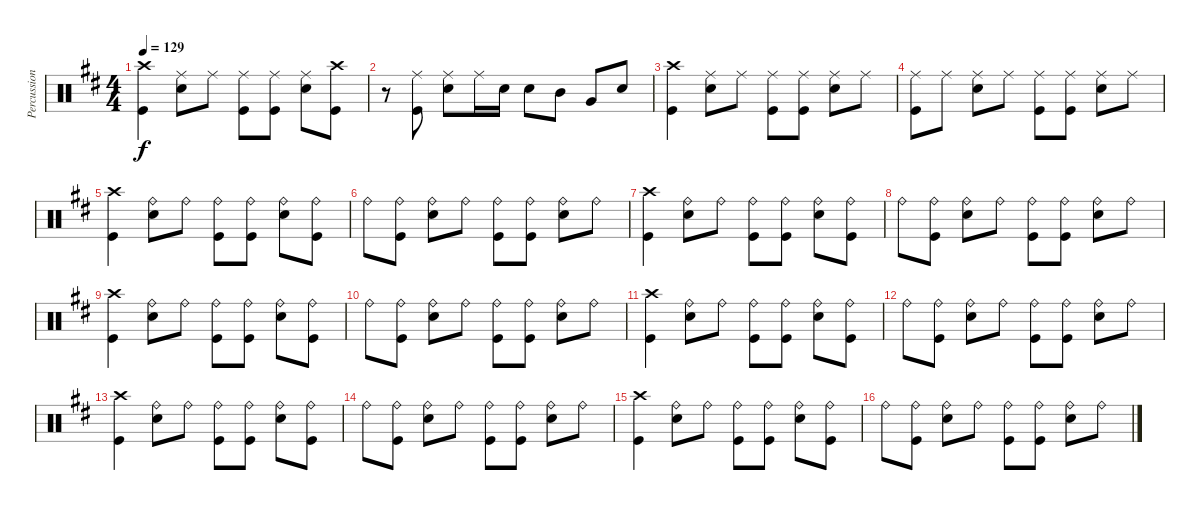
\track ("Percussion" "Percussion") {instrument percussion}
\staff {score}
\articulation defaults
\ts (4 4)
\tempo 129
\clef neutral
\ks bminor
("Crash high (hit)" "Kick (hit)").4{dy f} ("Ride (middle)" "Snare (hit) 2").8 "Ride (middle)".8 ("Ride (middle)" "Kick (hit)").8 ("Ride (middle)" "Kick (hit)").8 ("Ride (middle)" "Snare (hit) 2").8 ("Crash high (hit)" "Kick (hit)").8 |
r.8 ("Ride (middle)" "Kick (hit)").8 ("Ride (middle)" "Snare (hit) 2").8 "Ride (middle)".16 "Snare (hit) 2".16 "Snare (hit) 2".8 "Mid Tom (hit)".8 "Very Low Tom (hit)".8 "Snare (hit) 2".8 |
("Crash high (hit)" "Kick (hit)").4 ("Ride (middle)" "Snare (hit) 2").8 "Ride (middle)".8 ("Ride (middle)" "Kick (hit)").8 ("Ride (middle)" "Kick (hit)").8 ("Ride (middle)" "Snare (hit) 2").8 "Ride (middle)".8 |
("Ride (middle)" "Kick (hit)").8 "Ride (middle)".8 ("Ride (middle)" "Snare (hit) 2").8 "Ride (middle)".8 ("Ride (middle)" "Kick (hit)").8 ("Ride (middle)" "Kick (hit)").8 ("Ride (middle)" "Snare (hit) 2").8 "Ride (middle)".8 |
("Crash high (hit)" "Kick (hit)").4 ("Ride (bell)" "Snare (hit) 2").8 "Ride (bell)".8 ("Ride (bell)" "Kick (hit)").8 ("Ride (bell)" "Kick (hit)").8 ("Ride (bell)" "Snare (hit) 2").8 ("Ride (bell)" "Kick (hit)").8 |
"Ride (bell)".8 ("Ride (bell)" "Kick (hit)").8 ("Ride (bell)" "Snare (hit) 2").8 "Ride (bell)".8 ("Ride (bell)" "Kick (hit)").8 ("Ride (bell)" "Kick (hit)").8 ("Ride (bell)" "Snare (hit) 2").8 "Ride (bell)".8 |
("Crash high (hit)" "Kick (hit)").4 ("Ride (bell)" "Snare (hit) 2").8 "Ride (bell)".8 ("Ride (bell)" "Kick (hit)").8 ("Ride (bell)" "Kick (hit)").8 ("Ride (bell)" "Snare (hit) 2").8 ("Ride (bell)" "Kick (hit)").8 |
"Ride (bell)".8 ("Ride (bell)" "Kick (hit)").8 ("Ride (bell)" "Snare (hit) 2").8 "Ride (bell)".8 ("Ride (bell)" "Kick (hit)").8 ("Ride (bell)" "Kick (hit)").8 ("Ride (bell)" "Snare (hit) 2").8 "Ride (bell)".8 |
("Crash high (hit)" "Kick (hit)").4 ("Ride (bell)" "Snare (hit) 2").8 "Ride (bell)".8 ("Ride (bell)" "Kick (hit)").8 ("Ride (bell)" "Kick (hit)").8 ("Ride (bell)" "Snare (hit) 2").8 ("Ride (bell)" "Kick (hit)").8 |
"Ride (bell)".8 ("Ride (bell)" "Kick (hit)").8 ("Ride (bell)" "Snare (hit) 2").8 "Ride (bell)".8 ("Ride (bell)" "Kick (hit)").8 ("Ride (bell)" "Kick (hit)").8 ("Ride (bell)" "Snare (hit) 2").8 "Ride (bell)".8 |
("Crash high (hit)" "Kick (hit)").4 ("Ride (bell)" "Snare (hit) 2").8 "Ride (bell)".8 ("Ride (bell)" "Kick (hit)").8 ("Ride (bell)" "Kick (hit)").8 ("Ride (bell)" "Snare (hit) 2").8 ("Ride (bell)" "Kick (hit)").8 |
"Ride (bell)".8 ("Ride (bell)" "Kick (hit)").8 ("Ride (bell)" "Snare (hit) 2").8 "Ride (bell)".8 ("Ride (bell)" "Kick (hit)").8 ("Ride (bell)" "Kick (hit)").8 ("Ride (bell)" "Snare (hit) 2").8 "Ride (bell)".8 |
("Crash high (hit)" "Kick (hit)").4 ("Ride (bell)" "Snare (hit) 2").8 "Ride (bell)".8 ("Ride (bell)" "Kick (hit)").8 ("Ride (bell)" "Kick (hit)").8 ("Ride (bell)" "Snare (hit) 2").8 ("Ride (bell)" "Kick (hit)").8 |
"Ride (bell)".8 ("Ride (bell)" "Kick (hit)").8 ("Ride (bell)" "Snare (hit) 2").8 "Ride (bell)".8 ("Ride (bell)" "Kick (hit)").8 ("Ride (bell)" "Kick (hit)").8 ("Ride (bell)" "Snare (hit) 2").8 "Ride (bell)".8 |
("Crash high (hit)" "Kick (hit)").4 ("Ride (bell)" "Snare (hit) 2").8 "Ride (bell)".8 ("Ride (bell)" "Kick (hit)").8 ("Ride (bell)" "Kick (hit)").8 ("Ride (bell)" "Snare (hit) 2").8 ("Ride (bell)" "Kick (hit)").8 |
"Ride (bell)".8 ("Ride (bell)" "Kick (hit)").8 ("Ride (bell)" "Snare (hit) 2").8 "Ride (bell)".8 ("Ride (bell)" "Kick (hit)").8 ("Ride (bell)" "Kick (hit)").8 ("Ride (bell)" "Snare (hit) 2").8 "Ride (bell)".8
